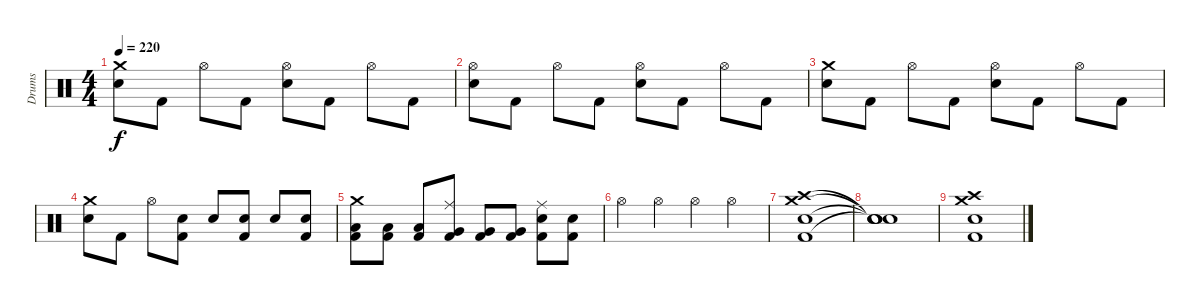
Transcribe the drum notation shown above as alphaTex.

\track ("Drums" "Drums") {instrument percussion}
\staff {score}
\articulation defaults
\ts (4 4)
\tempo 220
\clef neutral
\ks c
("Crash medium (hit)" "Electric Snare (hit)").8{dy f} "Kick (hit) 2".8 "Hi-Hat (open)".8 "Kick (hit) 2".8 ("Hi-Hat (open)" "Electric Snare (hit)").8 "Kick (hit) 2".8 "Hi-Hat (open)".8 "Kick (hit) 2".8 |
("Hi-Hat (open)" "Electric Snare (hit)").8 "Kick (hit) 2".8 "Hi-Hat (open)".8 "Kick (hit) 2".8 ("Hi-Hat (open)" "Electric Snare (hit)").8 "Kick (hit) 2".8 "Hi-Hat (open)".8 "Kick (hit) 2".8 |
("Crash medium (hit)" "Electric Snare (hit)").8 "Kick (hit) 2".8 "Hi-Hat (open)".8 "Kick (hit) 2".8 ("Hi-Hat (open)" "Electric Snare (hit)").8 "Kick (hit) 2".8 "Hi-Hat (open)".8 "Kick (hit) 2".8 |
("Crash medium (hit)" "Electric Snare (hit)").8 "Kick (hit) 2".8 "Hi-Hat (open)".8 ("Electric Snare (hit)" "Kick (hit) 2").8 "Electric Snare (hit)".8 ("Electric Snare (hit)" "Kick (hit) 2").8 "Electric Snare (hit)".8 ("Electric Snare (hit)" "Kick (hit) 2").8 |
("Crash medium (hit)" "Low Tom (hit)" "Kick (hit) 2").8 ("Low Tom (hit)" "Kick (hit) 2").8 ("Low Tom (hit)" "Kick (hit) 2").8 ("Ride (middle)" "Very Low Tom (hit)" "Kick (hit) 2").8 ("Very Low Tom (hit)" "Kick (hit) 2").8 ("Very Low Tom (hit)" "Kick (hit) 2").8 ("Ride (middle)" "Electric Snare (hit)" "Kick (hit) 2").8 ("Electric Snare (hit)" "Kick (hit) 2").8 |
"Hi-Hat (open)".4 "Hi-Hat (open)".4 "Hi-Hat (open)".4 "Hi-Hat (open)".4 |
("Crash medium (hit)" "Crash high (hit)" "Electric Snare (hit)" "Kick (hit) 2").1 |
("Snare (hit)"{t} "Snare (hit)"{t} "Snare (hit)"{t} "Snare (hit)"{t}).1 |
("Crash medium (hit)" "Crash high (hit)" "Electric Snare (hit)" "Kick (hit) 2").1
